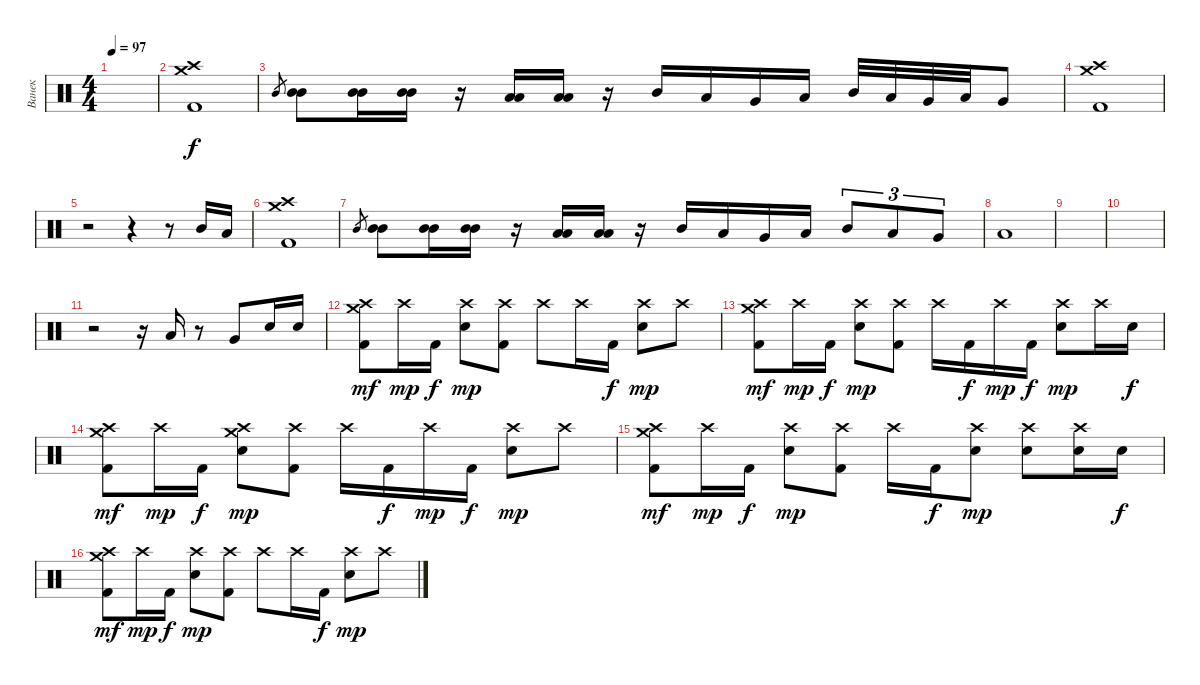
\track ("Ванек" "Ванек") {instrument percussion}
\staff {score}
\articulation defaults
\ts (4 4)
\tempo 97
\clef neutral
\ks c
|
("Crash high (hit)" "Crash medium (hit)" "Kick (hit) 2").1 |
"Mid Tom (hit)".8{gr} ("Mid Tom (hit)" "Mid Tom (hit)").8 ("Mid Tom (hit)" "Mid Tom (hit)").16 ("Mid Tom (hit)" "Mid Tom (hit)").16 r.16 ("Low Tom (hit)" "Low Tom (hit)").16 ("Low Tom (hit)" "Low Tom (hit)").16 r.16 "Mid Tom (hit)".16 "Low Tom (hit)".16 "Very Low Tom (hit)".16 "Low Floor Tom (hit)".16 "Mid Tom (hit)".32 "Low Tom (hit)".32 "Very Low Tom (hit)".32 "Low Floor Tom (hit)".32 "Very Low Tom (hit)".8 |
("Crash high (hit)" "Crash medium (hit)" "Kick (hit) 2").1 |
r.2 r.4 r.8 "Mid Tom (hit)".16 "Low Tom (hit)".16 |
("Crash high (hit)" "Crash medium (hit)" "Kick (hit) 2").1 |
"Mid Tom (hit)".8{gr} ("Mid Tom (hit)" "Mid Tom (hit)").8 ("Mid Tom (hit)" "Mid Tom (hit)").16 ("Mid Tom (hit)" "Mid Tom (hit)").16 r.16 ("Low Tom (hit)" "Low Tom (hit)").16 ("Low Tom (hit)" "Low Tom (hit)").16 r.16 "Mid Tom (hit)".16 "Low Tom (hit)".16 "Very Low Tom (hit)".16 "Low Floor Tom (hit)".16 "Mid Tom (hit)".8{tu (3 2)} "Low Tom (hit)".8{tu (3 2)} "Very Low Tom (hit)".8{tu (3 2)} |
"Low Floor Tom (hit)".1 |
|
|
r.2 r.16 "Low Tom (hit)".16 r.8 "Very Low Tom (hit)".8 "Snare (hit) 2".16 "Snare (hit) 2".16 |
("Crash high (hit)" "Crash medium (hit)" "Kick (hit) 2").8{dy mf} "Crash high (hit)".16{dy mp} "Kick (hit) 2".16{dy f} ("Crash high (hit)" "Snare (hit) 2").8{dy mp} ("Crash high (hit)" "Kick (hit) 2").8 "Crash high (hit)".8 "Crash high (hit)".16 "Kick (hit) 2".16{dy f} ("Crash high (hit)" "Snare (hit) 2").8{dy mp} "Crash high (hit)".8 |
("Crash high (hit)" "Crash medium (hit)" "Kick (hit) 2").8{dy mf} "Crash high (hit)".16{dy mp} "Kick (hit) 2".16{dy f} ("Crash high (hit)" "Snare (hit) 2").8{dy mp} ("Crash high (hit)" "Kick (hit) 2").8 "Crash high (hit)".16 "Kick (hit) 2".16{dy f} "Crash high (hit)".16{dy mp} "Kick (hit) 2".16{dy f} ("Crash high (hit)" "Snare (hit) 2").8{dy mp} "Crash high (hit)".16 "Snare (hit) 2".16{dy f} |
("Crash high (hit)" "Crash medium (hit)" "Kick (hit) 2").8{dy mf} "Crash high (hit)".16{dy mp} "Kick (hit) 2".16{dy f} ("Crash high (hit)" "Crash medium (hit)" "Snare (hit) 2").8{dy mp} ("Crash high (hit)" "Kick (hit) 2").8 "Crash high (hit)".16 "Kick (hit) 2".16{dy f} "Crash high (hit)".16{dy mp} "Kick (hit) 2".16{dy f} ("Crash high (hit)" "Snare (hit) 2").8{dy mp} "Crash high (hit)".8 |
("Crash high (hit)" "Crash medium (hit)" "Kick (hit) 2").8{dy mf} "Crash high (hit)".16{dy mp} "Kick (hit) 2".16{dy f} ("Crash high (hit)" "Snare (hit) 2").8{dy mp} ("Crash high (hit)" "Kick (hit) 2").8 "Crash high (hit)".16 "Kick (hit) 2".16{dy f} ("Crash high (hit)" "Snare (hit) 2").8{dy mp} ("Crash high (hit)" "Snare (hit) 2").8 ("Crash high (hit)" "Snare (hit) 2").16 "Snare (hit) 2".16{dy f} |
("Crash high (hit)" "Crash medium (hit)" "Kick (hit) 2").8{dy mf} "Crash high (hit)".16{dy mp} "Kick (hit) 2".16{dy f} ("Crash high (hit)" "Snare (hit) 2").8{dy mp} ("Crash high (hit)" "Kick (hit) 2").8 "Crash high (hit)".8 "Crash high (hit)".16 "Kick (hit) 2".16{dy f} ("Crash high (hit)" "Snare (hit) 2").8{dy mp} "Crash high (hit)".8
